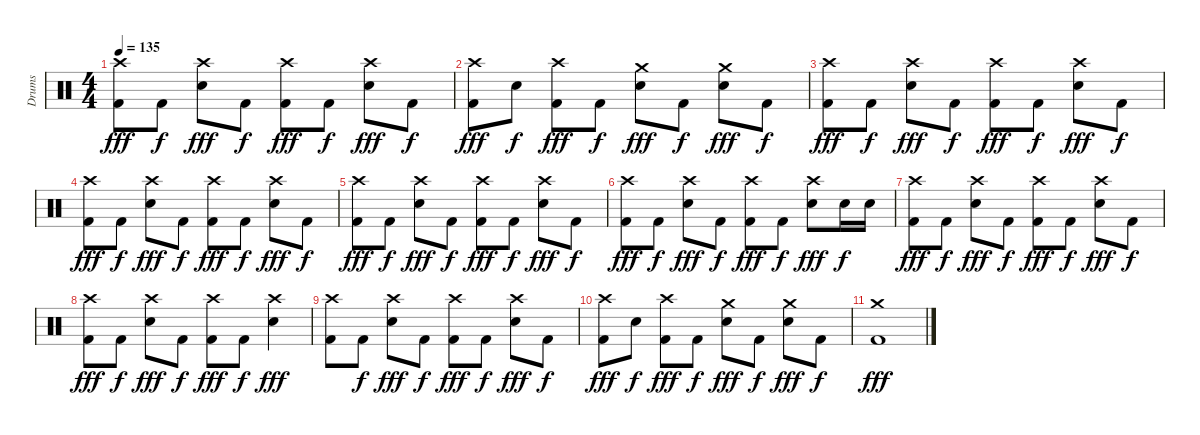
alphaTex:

\track ("Drums" "Drums") {instrument percussion}
\staff {score}
\articulation defaults
\ts (4 4)
\tempo 135
\clef neutral
\ks c
("Crash high (hit)" "Kick (hit) 2").8{dy fff} "Kick (hit) 2".8{dy f} ("Crash high (hit)" "Snare (hit) 2").8{dy fff} "Kick (hit) 2".8{dy f} ("Crash high (hit)" "Kick (hit) 2").8{dy fff} "Kick (hit) 2".8{dy f} ("Crash high (hit)" "Snare (hit) 2").8{dy fff} "Kick (hit) 2".8{dy f} |
("Crash high (hit)" "Kick (hit) 2").8{dy fff} "Snare (hit) 2".8{dy f} ("Crash high (hit)" "Kick (hit) 2").8{dy fff} "Kick (hit) 2".8{dy f} ("Crash medium (hit)" "Snare (hit) 2").8{dy fff} "Kick (hit) 2".8{dy f} ("Crash medium (hit)" "Snare (hit) 2").8{dy fff} "Kick (hit) 2".8{dy f} |
("Crash high (hit)" "Kick (hit) 2").8{dy fff} "Kick (hit) 2".8{dy f} ("Crash high (hit)" "Snare (hit) 2").8{dy fff} "Kick (hit) 2".8{dy f} ("Crash high (hit)" "Kick (hit) 2").8{dy fff} "Kick (hit) 2".8{dy f} ("Crash high (hit)" "Snare (hit) 2").8{dy fff} "Kick (hit) 2".8{dy f} |
("Crash high (hit)" "Kick (hit) 2").8{dy fff} "Kick (hit) 2".8{dy f} ("Crash high (hit)" "Snare (hit) 2").8{dy fff} "Kick (hit) 2".8{dy f} ("Crash high (hit)" "Kick (hit) 2").8{dy fff} "Kick (hit) 2".8{dy f} ("Crash high (hit)" "Snare (hit) 2").8{dy fff} "Kick (hit) 2".8{dy f} |
("Crash high (hit)" "Kick (hit) 2").8{dy fff} "Kick (hit) 2".8{dy f} ("Crash high (hit)" "Snare (hit) 2").8{dy fff} "Kick (hit) 2".8{dy f} ("Crash high (hit)" "Kick (hit) 2").8{dy fff} "Kick (hit) 2".8{dy f} ("Crash high (hit)" "Snare (hit) 2").8{dy fff} "Kick (hit) 2".8{dy f} |
("Crash high (hit)" "Kick (hit) 2").8{dy fff} "Kick (hit) 2".8{dy f} ("Crash high (hit)" "Snare (hit) 2").8{dy fff} "Kick (hit) 2".8{dy f} ("Crash high (hit)" "Kick (hit) 2").8{dy fff} "Kick (hit) 2".8{dy f} ("Crash high (hit)" "Snare (hit) 2").8{dy fff} "Snare (hit) 2".16{dy f} "Snare (hit) 2".16 |
("Crash high (hit)" "Kick (hit) 2").8{dy fff} "Kick (hit) 2".8{dy f} ("Crash high (hit)" "Snare (hit) 2").8{dy fff} "Kick (hit) 2".8{dy f} ("Crash high (hit)" "Kick (hit) 2").8{dy fff} "Kick (hit) 2".8{dy f} ("Crash high (hit)" "Snare (hit) 2").8{dy fff} "Kick (hit) 2".8{dy f} |
("Crash high (hit)" "Kick (hit) 2").8{dy fff} "Kick (hit) 2".8{dy f} ("Crash high (hit)" "Snare (hit) 2").8{dy fff} "Kick (hit) 2".8{dy f} ("Crash high (hit)" "Kick (hit) 2").8{dy fff} "Kick (hit) 2".8{dy f} ("Crash high (hit)" "Snare (hit) 2").4{dy fff} |
("Crash high (hit)" "Kick (hit) 2").8 "Kick (hit) 2".8{dy f} ("Crash high (hit)" "Snare (hit) 2").8{dy fff} "Kick (hit) 2".8{dy f} ("Crash high (hit)" "Kick (hit) 2").8{dy fff} "Kick (hit) 2".8{dy f} ("Crash high (hit)" "Snare (hit) 2").8{dy fff} "Kick (hit) 2".8{dy f} |
("Crash high (hit)" "Kick (hit) 2").8{dy fff} "Snare (hit) 2".8{dy f} ("Crash high (hit)" "Kick (hit) 2").8{dy fff} "Kick (hit) 2".8{dy f} ("Crash medium (hit)" "Snare (hit) 2").8{dy fff} "Kick (hit) 2".8{dy f} ("Crash medium (hit)" "Snare (hit) 2").8{dy fff} "Kick (hit) 2".8{dy f} |
("Crash medium (hit)" "Kick (hit) 2").1{dy fff}
